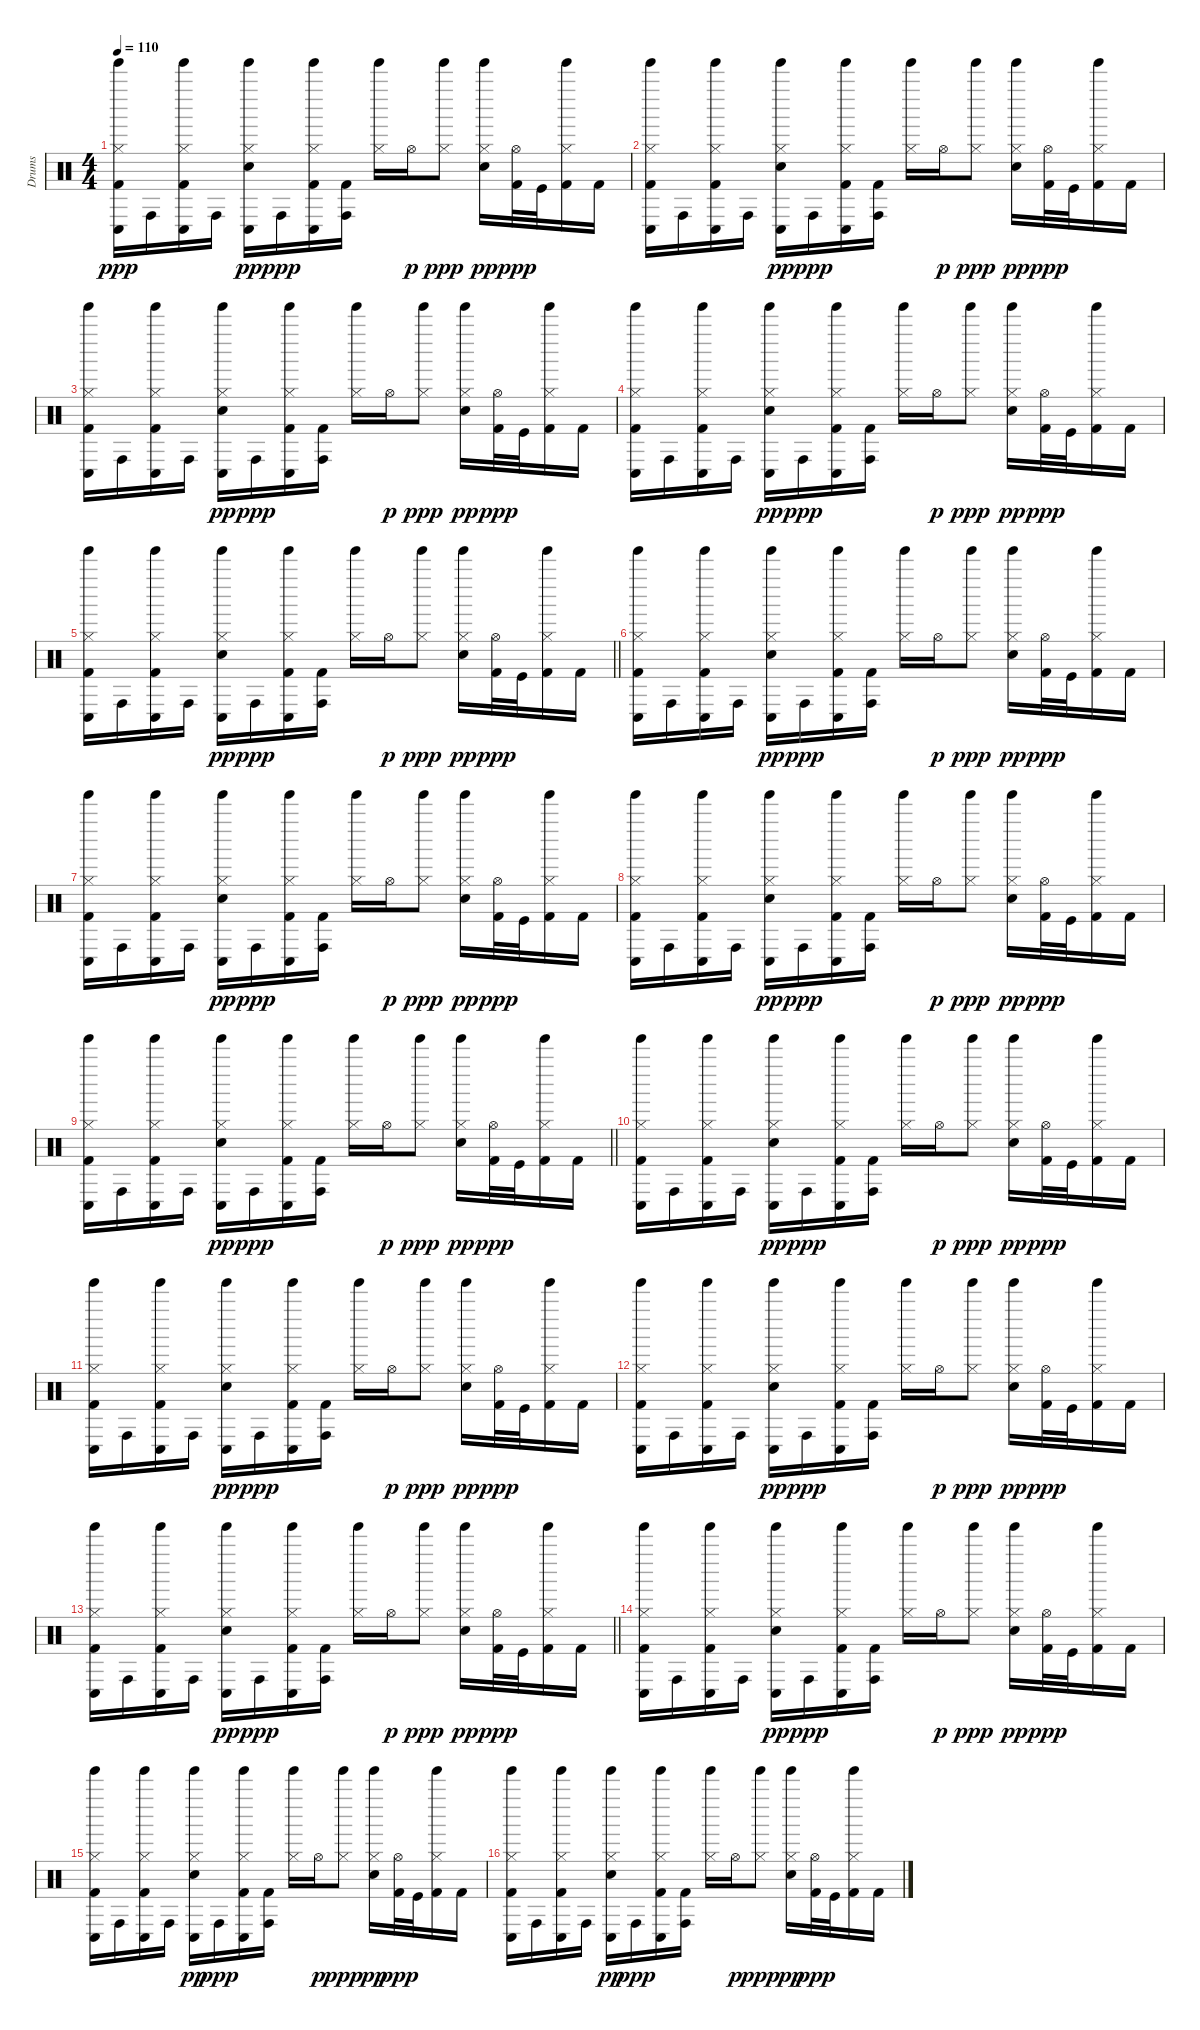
\track ("Drums" "Drums") {instrument percussion}
\staff {score}
\articulation defaults
\ts (4 4)
\tempo 110
\clef neutral
\ks c
("Tinkle Bell (hit)" "Conga low (hit)" "Hi-Hat (closed)" "Kick (hit) 2").16{dy ppp} "Conga high (hit)".16 ("Tinkle Bell (hit)" "Conga low (hit)" "Hi-Hat (closed)" "Kick (hit) 2").16 "Conga high (hit)".16 ("Tinkle Bell (hit)" "Conga low (hit)" "Hi-Hat (closed)" "Snare (hit) 2").16{dy pp} "Conga high (hit)".16{dy ppp} ("Tinkle Bell (hit)" "Conga low (hit)" "Hi-Hat (closed)" "Kick (hit) 2").16 ("Conga high (hit)" "Kick (hit) 2").16 ("Tinkle Bell (hit)" "Hi-Hat (closed)").16 "Hi-Hat (open)".16{dy p} ("Tinkle Bell (hit)" "Hi-Hat (closed)").8{dy ppp} ("Tinkle Bell (hit)" "Hi-Hat (closed)" "Snare (hit) 2").16{dy pp} ("Hi-Hat (open)" "Kick (hit) 2").32{dy ppp} "Kick (hit)".32 ("Tinkle Bell (hit)" "Hi-Hat (closed)" "Kick (hit) 2").16 "Kick (hit) 2".16 |
("Tinkle Bell (hit)" "Conga low (hit)" "Hi-Hat (closed)" "Kick (hit) 2").16 "Conga high (hit)".16 ("Tinkle Bell (hit)" "Conga low (hit)" "Hi-Hat (closed)" "Kick (hit) 2").16 "Conga high (hit)".16 ("Tinkle Bell (hit)" "Conga low (hit)" "Hi-Hat (closed)" "Snare (hit) 2").16{dy pp} "Conga high (hit)".16{dy ppp} ("Tinkle Bell (hit)" "Conga low (hit)" "Hi-Hat (closed)" "Kick (hit) 2").16 ("Conga high (hit)" "Kick (hit) 2").16 ("Tinkle Bell (hit)" "Hi-Hat (closed)").16 "Hi-Hat (open)".16{dy p} ("Tinkle Bell (hit)" "Hi-Hat (closed)").8{dy ppp} ("Tinkle Bell (hit)" "Hi-Hat (closed)" "Snare (hit) 2").16{dy pp} ("Hi-Hat (open)" "Kick (hit) 2").32{dy ppp} "Kick (hit)".32 ("Tinkle Bell (hit)" "Hi-Hat (closed)" "Kick (hit) 2").16 "Kick (hit) 2".16 |
("Tinkle Bell (hit)" "Conga low (hit)" "Hi-Hat (closed)" "Kick (hit) 2").16 "Conga high (hit)".16 ("Tinkle Bell (hit)" "Conga low (hit)" "Hi-Hat (closed)" "Kick (hit) 2").16 "Conga high (hit)".16 ("Tinkle Bell (hit)" "Conga low (hit)" "Hi-Hat (closed)" "Snare (hit) 2").16{dy pp} "Conga high (hit)".16{dy ppp} ("Tinkle Bell (hit)" "Conga low (hit)" "Hi-Hat (closed)" "Kick (hit) 2").16 ("Conga high (hit)" "Kick (hit) 2").16 ("Tinkle Bell (hit)" "Hi-Hat (closed)").16 "Hi-Hat (open)".16{dy p} ("Tinkle Bell (hit)" "Hi-Hat (closed)").8{dy ppp} ("Tinkle Bell (hit)" "Hi-Hat (closed)" "Snare (hit) 2").16{dy pp} ("Hi-Hat (open)" "Kick (hit) 2").32{dy ppp} "Kick (hit)".32 ("Tinkle Bell (hit)" "Hi-Hat (closed)" "Kick (hit) 2").16 "Kick (hit) 2".16 |
("Tinkle Bell (hit)" "Conga low (hit)" "Hi-Hat (closed)" "Kick (hit) 2").16 "Conga high (hit)".16 ("Tinkle Bell (hit)" "Conga low (hit)" "Hi-Hat (closed)" "Kick (hit) 2").16 "Conga high (hit)".16 ("Tinkle Bell (hit)" "Conga low (hit)" "Hi-Hat (closed)" "Snare (hit) 2").16{dy pp} "Conga high (hit)".16{dy ppp} ("Tinkle Bell (hit)" "Conga low (hit)" "Hi-Hat (closed)" "Kick (hit) 2").16 ("Conga high (hit)" "Kick (hit) 2").16 ("Tinkle Bell (hit)" "Hi-Hat (closed)").16 "Hi-Hat (open)".16{dy p} ("Tinkle Bell (hit)" "Hi-Hat (closed)").8{dy ppp} ("Tinkle Bell (hit)" "Hi-Hat (closed)" "Snare (hit) 2").16{dy pp} ("Hi-Hat (open)" "Kick (hit) 2").32{dy ppp} "Kick (hit)".32 ("Tinkle Bell (hit)" "Hi-Hat (closed)" "Kick (hit) 2").16 "Kick (hit) 2".16 |
\barLineRight lightlight
("Tinkle Bell (hit)" "Conga low (hit)" "Hi-Hat (closed)" "Kick (hit) 2").16 "Conga high (hit)".16 ("Tinkle Bell (hit)" "Conga low (hit)" "Hi-Hat (closed)" "Kick (hit) 2").16 "Conga high (hit)".16 ("Tinkle Bell (hit)" "Conga low (hit)" "Hi-Hat (closed)" "Snare (hit) 2").16{dy pp} "Conga high (hit)".16{dy ppp} ("Tinkle Bell (hit)" "Conga low (hit)" "Hi-Hat (closed)" "Kick (hit) 2").16 ("Conga high (hit)" "Kick (hit) 2").16 ("Tinkle Bell (hit)" "Hi-Hat (closed)").16 "Hi-Hat (open)".16{dy p} ("Tinkle Bell (hit)" "Hi-Hat (closed)").8{dy ppp} ("Tinkle Bell (hit)" "Hi-Hat (closed)" "Snare (hit) 2").16{dy pp} ("Hi-Hat (open)" "Kick (hit) 2").32{dy ppp} "Kick (hit)".32 ("Tinkle Bell (hit)" "Hi-Hat (closed)" "Kick (hit) 2").16 "Kick (hit) 2".16 |
("Tinkle Bell (hit)" "Conga low (hit)" "Hi-Hat (closed)" "Kick (hit) 2").16 "Conga high (hit)".16 ("Tinkle Bell (hit)" "Conga low (hit)" "Hi-Hat (closed)" "Kick (hit) 2").16 "Conga high (hit)".16 ("Tinkle Bell (hit)" "Conga low (hit)" "Hi-Hat (closed)" "Snare (hit) 2").16{dy pp} "Conga high (hit)".16{dy ppp} ("Tinkle Bell (hit)" "Conga low (hit)" "Hi-Hat (closed)" "Kick (hit) 2").16 ("Conga high (hit)" "Kick (hit) 2").16 ("Tinkle Bell (hit)" "Hi-Hat (closed)").16 "Hi-Hat (open)".16{dy p} ("Tinkle Bell (hit)" "Hi-Hat (closed)").8{dy ppp} ("Tinkle Bell (hit)" "Hi-Hat (closed)" "Snare (hit) 2").16{dy pp} ("Hi-Hat (open)" "Kick (hit) 2").32{dy ppp} "Kick (hit)".32 ("Tinkle Bell (hit)" "Hi-Hat (closed)" "Kick (hit) 2").16 "Kick (hit) 2".16 |
("Tinkle Bell (hit)" "Conga low (hit)" "Hi-Hat (closed)" "Kick (hit) 2").16 "Conga high (hit)".16 ("Tinkle Bell (hit)" "Conga low (hit)" "Hi-Hat (closed)" "Kick (hit) 2").16 "Conga high (hit)".16 ("Tinkle Bell (hit)" "Conga low (hit)" "Hi-Hat (closed)" "Snare (hit) 2").16{dy pp} "Conga high (hit)".16{dy ppp} ("Tinkle Bell (hit)" "Conga low (hit)" "Hi-Hat (closed)" "Kick (hit) 2").16 ("Conga high (hit)" "Kick (hit) 2").16 ("Tinkle Bell (hit)" "Hi-Hat (closed)").16 "Hi-Hat (open)".16{dy p} ("Tinkle Bell (hit)" "Hi-Hat (closed)").8{dy ppp} ("Tinkle Bell (hit)" "Hi-Hat (closed)" "Snare (hit) 2").16{dy pp} ("Hi-Hat (open)" "Kick (hit) 2").32{dy ppp} "Kick (hit)".32 ("Tinkle Bell (hit)" "Hi-Hat (closed)" "Kick (hit) 2").16 "Kick (hit) 2".16 |
("Tinkle Bell (hit)" "Conga low (hit)" "Hi-Hat (closed)" "Kick (hit) 2").16 "Conga high (hit)".16 ("Tinkle Bell (hit)" "Conga low (hit)" "Hi-Hat (closed)" "Kick (hit) 2").16 "Conga high (hit)".16 ("Tinkle Bell (hit)" "Conga low (hit)" "Hi-Hat (closed)" "Snare (hit) 2").16{dy pp} "Conga high (hit)".16{dy ppp} ("Tinkle Bell (hit)" "Conga low (hit)" "Hi-Hat (closed)" "Kick (hit) 2").16 ("Conga high (hit)" "Kick (hit) 2").16 ("Tinkle Bell (hit)" "Hi-Hat (closed)").16 "Hi-Hat (open)".16{dy p} ("Tinkle Bell (hit)" "Hi-Hat (closed)").8{dy ppp} ("Tinkle Bell (hit)" "Hi-Hat (closed)" "Snare (hit) 2").16{dy pp} ("Hi-Hat (open)" "Kick (hit) 2").32{dy ppp} "Kick (hit)".32 ("Tinkle Bell (hit)" "Hi-Hat (closed)" "Kick (hit) 2").16 "Kick (hit) 2".16 |
\barLineRight lightlight
("Tinkle Bell (hit)" "Conga low (hit)" "Hi-Hat (closed)" "Kick (hit) 2").16 "Conga high (hit)".16 ("Tinkle Bell (hit)" "Conga low (hit)" "Hi-Hat (closed)" "Kick (hit) 2").16 "Conga high (hit)".16 ("Tinkle Bell (hit)" "Conga low (hit)" "Hi-Hat (closed)" "Snare (hit) 2").16{dy pp} "Conga high (hit)".16{dy ppp} ("Tinkle Bell (hit)" "Conga low (hit)" "Hi-Hat (closed)" "Kick (hit) 2").16 ("Conga high (hit)" "Kick (hit) 2").16 ("Tinkle Bell (hit)" "Hi-Hat (closed)").16 "Hi-Hat (open)".16{dy p} ("Tinkle Bell (hit)" "Hi-Hat (closed)").8{dy ppp} ("Tinkle Bell (hit)" "Hi-Hat (closed)" "Snare (hit) 2").16{dy pp} ("Hi-Hat (open)" "Kick (hit) 2").32{dy ppp} "Kick (hit)".32 ("Tinkle Bell (hit)" "Hi-Hat (closed)" "Kick (hit) 2").16 "Kick (hit) 2".16 |
("Tinkle Bell (hit)" "Conga low (hit)" "Hi-Hat (closed)" "Kick (hit) 2").16 "Conga high (hit)".16 ("Tinkle Bell (hit)" "Conga low (hit)" "Hi-Hat (closed)" "Kick (hit) 2").16 "Conga high (hit)".16 ("Tinkle Bell (hit)" "Conga low (hit)" "Hi-Hat (closed)" "Snare (hit) 2").16{dy pp} "Conga high (hit)".16{dy ppp} ("Tinkle Bell (hit)" "Conga low (hit)" "Hi-Hat (closed)" "Kick (hit) 2").16 ("Conga high (hit)" "Kick (hit) 2").16 ("Tinkle Bell (hit)" "Hi-Hat (closed)").16 "Hi-Hat (open)".16{dy p} ("Tinkle Bell (hit)" "Hi-Hat (closed)").8{dy ppp} ("Tinkle Bell (hit)" "Hi-Hat (closed)" "Snare (hit) 2").16{dy pp} ("Hi-Hat (open)" "Kick (hit) 2").32{dy ppp} "Kick (hit)".32 ("Tinkle Bell (hit)" "Hi-Hat (closed)" "Kick (hit) 2").16 "Kick (hit) 2".16 |
("Tinkle Bell (hit)" "Conga low (hit)" "Hi-Hat (closed)" "Kick (hit) 2").16 "Conga high (hit)".16 ("Tinkle Bell (hit)" "Conga low (hit)" "Hi-Hat (closed)" "Kick (hit) 2").16 "Conga high (hit)".16 ("Tinkle Bell (hit)" "Conga low (hit)" "Hi-Hat (closed)" "Snare (hit) 2").16{dy pp} "Conga high (hit)".16{dy ppp} ("Tinkle Bell (hit)" "Conga low (hit)" "Hi-Hat (closed)" "Kick (hit) 2").16 ("Conga high (hit)" "Kick (hit) 2").16 ("Tinkle Bell (hit)" "Hi-Hat (closed)").16 "Hi-Hat (open)".16{dy p} ("Tinkle Bell (hit)" "Hi-Hat (closed)").8{dy ppp} ("Tinkle Bell (hit)" "Hi-Hat (closed)" "Snare (hit) 2").16{dy pp} ("Hi-Hat (open)" "Kick (hit) 2").32{dy ppp} "Kick (hit)".32 ("Tinkle Bell (hit)" "Hi-Hat (closed)" "Kick (hit) 2").16 "Kick (hit) 2".16 |
("Tinkle Bell (hit)" "Conga low (hit)" "Hi-Hat (closed)" "Kick (hit) 2").16 "Conga high (hit)".16 ("Tinkle Bell (hit)" "Conga low (hit)" "Hi-Hat (closed)" "Kick (hit) 2").16 "Conga high (hit)".16 ("Tinkle Bell (hit)" "Conga low (hit)" "Hi-Hat (closed)" "Snare (hit) 2").16{dy pp} "Conga high (hit)".16{dy ppp} ("Tinkle Bell (hit)" "Conga low (hit)" "Hi-Hat (closed)" "Kick (hit) 2").16 ("Conga high (hit)" "Kick (hit) 2").16 ("Tinkle Bell (hit)" "Hi-Hat (closed)").16 "Hi-Hat (open)".16{dy p} ("Tinkle Bell (hit)" "Hi-Hat (closed)").8{dy ppp} ("Tinkle Bell (hit)" "Hi-Hat (closed)" "Snare (hit) 2").16{dy pp} ("Hi-Hat (open)" "Kick (hit) 2").32{dy ppp} "Kick (hit)".32 ("Tinkle Bell (hit)" "Hi-Hat (closed)" "Kick (hit) 2").16 "Kick (hit) 2".16 |
\barLineRight lightlight
("Tinkle Bell (hit)" "Conga low (hit)" "Hi-Hat (closed)" "Kick (hit) 2").16 "Conga high (hit)".16 ("Tinkle Bell (hit)" "Conga low (hit)" "Hi-Hat (closed)" "Kick (hit) 2").16 "Conga high (hit)".16 ("Tinkle Bell (hit)" "Conga low (hit)" "Hi-Hat (closed)" "Snare (hit) 2").16{dy pp} "Conga high (hit)".16{dy ppp} ("Tinkle Bell (hit)" "Conga low (hit)" "Hi-Hat (closed)" "Kick (hit) 2").16 ("Conga high (hit)" "Kick (hit) 2").16 ("Tinkle Bell (hit)" "Hi-Hat (closed)").16 "Hi-Hat (open)".16{dy p} ("Tinkle Bell (hit)" "Hi-Hat (closed)").8{dy ppp} ("Tinkle Bell (hit)" "Hi-Hat (closed)" "Snare (hit) 2").16{dy pp} ("Hi-Hat (open)" "Kick (hit) 2").32{dy ppp} "Kick (hit)".32 ("Tinkle Bell (hit)" "Hi-Hat (closed)" "Kick (hit) 2").16 "Kick (hit) 2".16 |
("Tinkle Bell (hit)" "Conga low (hit)" "Hi-Hat (closed)" "Kick (hit) 2").16 "Conga high (hit)".16 ("Tinkle Bell (hit)" "Conga low (hit)" "Hi-Hat (closed)" "Kick (hit) 2").16 "Conga high (hit)".16 ("Tinkle Bell (hit)" "Conga low (hit)" "Hi-Hat (closed)" "Snare (hit) 2").16{dy pp} "Conga high (hit)".16{dy ppp} ("Tinkle Bell (hit)" "Conga low (hit)" "Hi-Hat (closed)" "Kick (hit) 2").16 ("Conga high (hit)" "Kick (hit) 2").16 ("Tinkle Bell (hit)" "Hi-Hat (closed)").16 "Hi-Hat (open)".16{dy p} ("Tinkle Bell (hit)" "Hi-Hat (closed)").8{dy ppp} ("Tinkle Bell (hit)" "Hi-Hat (closed)" "Snare (hit) 2").16{dy pp} ("Hi-Hat (open)" "Kick (hit) 2").32{dy ppp} "Kick (hit)".32 ("Tinkle Bell (hit)" "Hi-Hat (closed)" "Kick (hit) 2").16 "Kick (hit) 2".16 |
("Tinkle Bell (hit)" "Conga low (hit)" "Hi-Hat (closed)" "Kick (hit) 2").16 "Conga high (hit)".16 ("Tinkle Bell (hit)" "Conga low (hit)" "Hi-Hat (closed)" "Kick (hit) 2").16 "Conga high (hit)".16 ("Tinkle Bell (hit)" "Conga low (hit)" "Hi-Hat (closed)" "Snare (hit) 2").16{dy pp} "Conga high (hit)".16{dy ppp} ("Tinkle Bell (hit)" "Conga low (hit)" "Hi-Hat (closed)" "Kick (hit) 2").16 ("Conga high (hit)" "Kick (hit) 2").16 ("Tinkle Bell (hit)" "Hi-Hat (closed)").16 "Hi-Hat (open)".16{dy p} ("Tinkle Bell (hit)" "Hi-Hat (closed)").8{dy ppp} ("Tinkle Bell (hit)" "Hi-Hat (closed)" "Snare (hit) 2").16{dy pp} ("Hi-Hat (open)" "Kick (hit) 2").32{dy ppp} "Kick (hit)".32 ("Tinkle Bell (hit)" "Hi-Hat (closed)" "Kick (hit) 2").16 "Kick (hit) 2".16 |
("Tinkle Bell (hit)" "Conga low (hit)" "Hi-Hat (closed)" "Kick (hit) 2").16 "Conga high (hit)".16 ("Tinkle Bell (hit)" "Conga low (hit)" "Hi-Hat (closed)" "Kick (hit) 2").16 "Conga high (hit)".16 ("Tinkle Bell (hit)" "Conga low (hit)" "Hi-Hat (closed)" "Snare (hit) 2").16{dy pp} "Conga high (hit)".16{dy ppp} ("Tinkle Bell (hit)" "Conga low (hit)" "Hi-Hat (closed)" "Kick (hit) 2").16 ("Conga high (hit)" "Kick (hit) 2").16 ("Tinkle Bell (hit)" "Hi-Hat (closed)").16 "Hi-Hat (open)".16{dy p} ("Tinkle Bell (hit)" "Hi-Hat (closed)").8{dy ppp} ("Tinkle Bell (hit)" "Hi-Hat (closed)" "Snare (hit) 2").16{dy pp} ("Hi-Hat (open)" "Kick (hit) 2").32{dy ppp} "Kick (hit)".32 ("Tinkle Bell (hit)" "Hi-Hat (closed)" "Kick (hit) 2").16 "Kick (hit) 2".16
